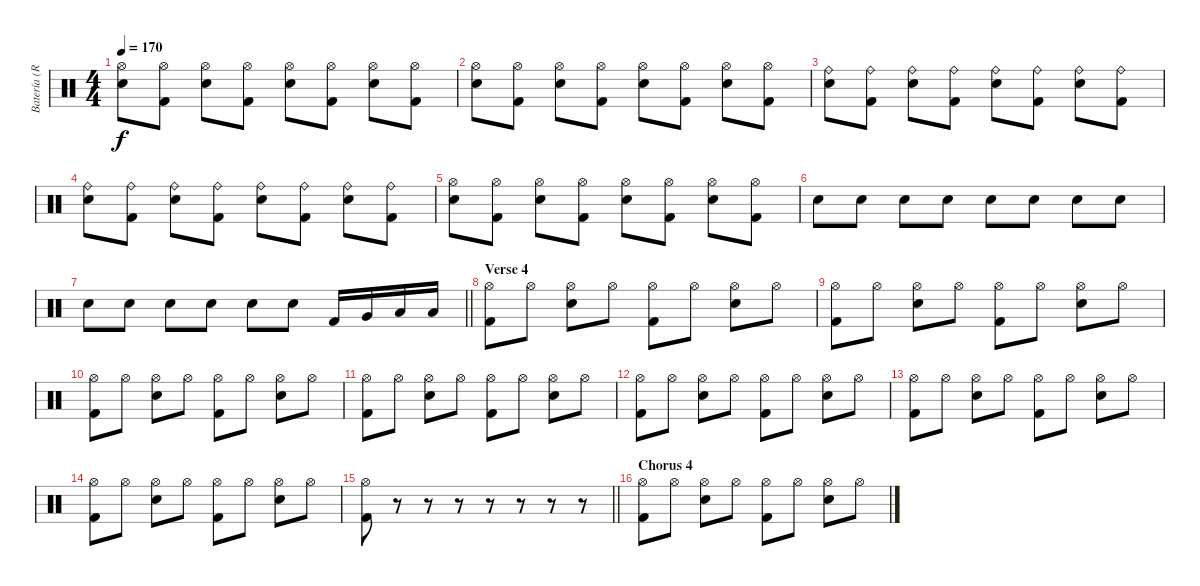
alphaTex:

\track ("Batería (Richie)" "Batería (R") {instrument percussion}
\staff {score}
\articulation defaults
\ts (4 4)
\tempo 170
\clef neutral
\ks c
("Hi-Hat (open)" "Snare (hit) 2").8{dy f} ("Hi-Hat (open)" "Kick (hit) 2").8 ("Hi-Hat (open)" "Snare (hit) 2").8 ("Hi-Hat (open)" "Kick (hit) 2").8 ("Hi-Hat (open)" "Snare (hit) 2").8 ("Hi-Hat (open)" "Kick (hit) 2").8 ("Hi-Hat (open)" "Snare (hit) 2").8 ("Hi-Hat (open)" "Kick (hit) 2").8 |
("Hi-Hat (open)" "Snare (hit) 2").8 ("Hi-Hat (open)" "Kick (hit) 2").8 ("Hi-Hat (open)" "Snare (hit) 2").8 ("Hi-Hat (open)" "Kick (hit) 2").8 ("Hi-Hat (open)" "Snare (hit) 2").8 ("Hi-Hat (open)" "Kick (hit) 2").8 ("Hi-Hat (open)" "Snare (hit) 2").8 ("Hi-Hat (open)" "Kick (hit) 2").8 |
("Ride (bell)" "Snare (hit) 2").8 ("Ride (bell)" "Kick (hit) 2").8 ("Ride (bell)" "Snare (hit) 2").8 ("Ride (bell)" "Kick (hit) 2").8 ("Ride (bell)" "Snare (hit) 2").8 ("Ride (bell)" "Kick (hit) 2").8 ("Ride (bell)" "Snare (hit) 2").8 ("Ride (bell)" "Kick (hit) 2").8 |
("Ride (bell)" "Snare (hit) 2").8 ("Ride (bell)" "Kick (hit) 2").8 ("Ride (bell)" "Snare (hit) 2").8 ("Ride (bell)" "Kick (hit) 2").8 ("Ride (bell)" "Snare (hit) 2").8 ("Ride (bell)" "Kick (hit) 2").8 ("Ride (bell)" "Snare (hit) 2").8 ("Ride (bell)" "Kick (hit) 2").8 |
("Hi-Hat (open)" "Snare (hit) 2").8 ("Hi-Hat (open)" "Kick (hit) 2").8 ("Hi-Hat (open)" "Snare (hit) 2").8 ("Hi-Hat (open)" "Kick (hit) 2").8 ("Hi-Hat (open)" "Snare (hit) 2").8 ("Hi-Hat (open)" "Kick (hit) 2").8 ("Hi-Hat (open)" "Snare (hit) 2").8 ("Hi-Hat (open)" "Kick (hit) 2").8 |
"Snare (hit) 2".8 "Snare (hit) 2".8 "Snare (hit) 2".8 "Snare (hit) 2".8 "Snare (hit) 2".8 "Snare (hit) 2".8 "Snare (hit) 2".8 "Snare (hit) 2".8 |
\barLineRight lightlight "Snare (hit) 2".8 "Snare (hit) 2".8 "Snare (hit) 2".8 "Snare (hit) 2".8 "Snare (hit) 2".8 "Snare (hit) 2".8 "Kick (hit) 2".16 "Very Low Tom (hit)".16 "Low Tom (hit)".16 "Low Floor Tom (hit)".16
|
\section ("" "Verse 4")
("Hi-Hat (open)" "Kick (hit) 2").8 "Hi-Hat (open)".8 ("Hi-Hat (open)" "Snare (hit) 2").8 "Hi-Hat (open)".8 ("Hi-Hat (open)" "Kick (hit) 2").8 "Hi-Hat (open)".8 ("Hi-Hat (open)" "Snare (hit) 2").8 "Hi-Hat (open)".8 |
("Hi-Hat (open)" "Kick (hit) 2").8 "Hi-Hat (open)".8 ("Hi-Hat (open)" "Snare (hit) 2").8 "Hi-Hat (open)".8 ("Hi-Hat (open)" "Kick (hit) 2").8 "Hi-Hat (open)".8 ("Hi-Hat (open)" "Snare (hit) 2").8 "Hi-Hat (open)".8 |
("Hi-Hat (open)" "Kick (hit) 2").8 "Hi-Hat (open)".8 ("Hi-Hat (open)" "Snare (hit) 2").8 "Hi-Hat (open)".8 ("Hi-Hat (open)" "Kick (hit) 2").8 "Hi-Hat (open)".8 ("Hi-Hat (open)" "Snare (hit) 2").8 "Hi-Hat (open)".8 |
("Hi-Hat (open)" "Kick (hit) 2").8 "Hi-Hat (open)".8 ("Hi-Hat (open)" "Snare (hit) 2").8 "Hi-Hat (open)".8 ("Hi-Hat (open)" "Kick (hit) 2").8 "Hi-Hat (open)".8 ("Hi-Hat (open)" "Snare (hit) 2").8 "Hi-Hat (open)".8 |
("Hi-Hat (open)" "Kick (hit) 2").8 "Hi-Hat (open)".8 ("Hi-Hat (open)" "Snare (hit) 2").8 "Hi-Hat (open)".8 ("Hi-Hat (open)" "Kick (hit) 2").8 "Hi-Hat (open)".8 ("Hi-Hat (open)" "Snare (hit) 2").8 "Hi-Hat (open)".8 |
("Hi-Hat (open)" "Kick (hit) 2").8 "Hi-Hat (open)".8 ("Hi-Hat (open)" "Snare (hit) 2").8 "Hi-Hat (open)".8 ("Hi-Hat (open)" "Kick (hit) 2").8 "Hi-Hat (open)".8 ("Hi-Hat (open)" "Snare (hit) 2").8 "Hi-Hat (open)".8 |
("Hi-Hat (open)" "Kick (hit) 2").8 "Hi-Hat (open)".8 ("Hi-Hat (open)" "Snare (hit) 2").8 "Hi-Hat (open)".8 ("Hi-Hat (open)" "Kick (hit) 2").8 "Hi-Hat (open)".8 ("Hi-Hat (open)" "Snare (hit) 2").8 "Hi-Hat (open)".8 |
\barLineRight lightlight
("Hi-Hat (open)" "Kick (hit) 2").8 r.8 r.8 r.8 r.8 r.8 r.8 r.8 |
\section ("" "Chorus 4")
("Hi-Hat (open)" "Kick (hit) 2").8 "Hi-Hat (open)".8 ("Hi-Hat (open)" "Snare (hit) 2").8 "Hi-Hat (open)".8 ("Hi-Hat (open)" "Kick (hit) 2").8 "Hi-Hat (open)".8 ("Hi-Hat (open)" "Snare (hit) 2").8 "Hi-Hat (open)".8
